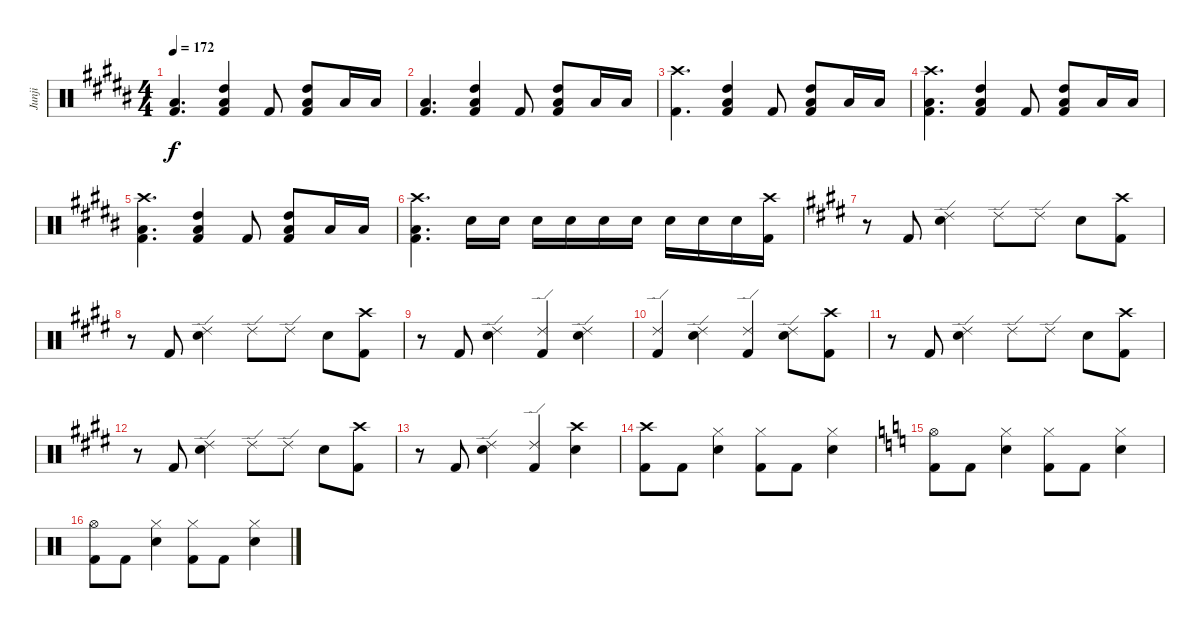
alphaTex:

\track ("Junji" "Junji") {instrument percussion}
\staff {score}
\articulation defaults
\ts (4 4)
\tempo 172
\clef neutral
\ks b
("Kick (hit) 2" "Low Tom (hit)").4{d dy f} ("Low Floor Tom (hit)" "Kick (hit) 2" "High Tom (hit)").4 "Kick (hit) 2".8 ("Low Floor Tom (hit)" "Kick (hit) 2" "High Tom (hit)").8 "Low Tom (hit)".16 "Low Tom (hit)".16 |
("Kick (hit) 2" "Low Tom (hit)").4{d} ("Low Floor Tom (hit)" "Kick (hit) 2" "High Tom (hit)").4 "Kick (hit) 2".8 ("Low Floor Tom (hit)" "Kick (hit) 2" "High Tom (hit)").8 "Low Tom (hit)".16 "Low Tom (hit)".16 |
("Crash high (hit)" "Kick (hit) 2").4{d} ("Low Floor Tom (hit)" "Kick (hit) 2" "High Tom (hit)").4 "Kick (hit) 2".8 ("Low Floor Tom (hit)" "Kick (hit) 2" "High Tom (hit)").8 "Low Tom (hit)".16 "Low Tom (hit)".16 |
("Crash high (hit)" "Kick (hit) 2" "Low Tom (hit)").4{d} ("Low Floor Tom (hit)" "Kick (hit) 2" "High Tom (hit)").4 "Kick (hit) 2".8 ("Low Floor Tom (hit)" "Kick (hit) 2" "High Tom (hit)").8 "Low Tom (hit)".16 "Low Tom (hit)".16 |
("Crash high (hit)" "Kick (hit) 2" "Low Tom (hit)").4{d} ("Low Floor Tom (hit)" "Kick (hit) 2" "High Tom (hit)").4 "Kick (hit) 2".8 ("Low Floor Tom (hit)" "Kick (hit) 2" "High Tom (hit)").8 "Low Tom (hit)".16 "Low Tom (hit)".16 |
("Crash high (hit)" "Kick (hit) 2" "Low Tom (hit)").4{d} "Snare (hit) 2".16 "Snare (hit) 2".16 "Snare (hit) 2".16 "Snare (hit) 2".16 "Snare (hit) 2".16 "Snare (hit) 2".16 "Snare (hit) 2".16 "Snare (hit) 2".16 "Snare (hit) 2".16 ("Crash high (hit)" "Kick (hit) 2").16 |
\ks e
r.8 "Kick (hit) 2".8 ("Ride (edge) 2" "Snare (hit) 2").4 "Ride (edge) 2".8 "Ride (edge) 2".8 "Snare (hit) 2".8 ("Crash high (hit)" "Kick (hit) 2").8 |
r.8 "Kick (hit) 2".8 ("Ride (edge) 2" "Snare (hit) 2").4 "Ride (edge) 2".8 "Ride (edge) 2".8 "Snare (hit) 2".8 ("Crash high (hit)" "Kick (hit) 2").8 |
r.8 "Kick (hit) 2".8 ("Ride (edge) 2" "Snare (hit) 2").4 ("Ride (edge) 2" "Kick (hit) 2").4 ("Ride (edge) 2" "Snare (hit) 2").4 |
("Ride (edge) 2" "Kick (hit) 2").4 ("Ride (edge) 2" "Snare (hit) 2").4 ("Ride (edge) 2" "Kick (hit) 2").4 ("Ride (edge) 2" "Snare (hit) 2").8 ("Crash high (hit)" "Kick (hit) 2").8 |
r.8 "Kick (hit) 2".8 ("Ride (edge) 2" "Snare (hit) 2").4 "Ride (edge) 2".8 "Ride (edge) 2".8 "Snare (hit) 2".8 ("Crash high (hit)" "Kick (hit) 2").8 |
r.8 "Kick (hit) 2".8 ("Ride (edge) 2" "Snare (hit) 2").4 "Ride (edge) 2".8 "Ride (edge) 2".8 "Snare (hit) 2".8 ("Crash high (hit)" "Kick (hit) 2").8 |
r.8 "Kick (hit) 2".8 ("Ride (edge) 2" "Snare (hit) 2").4 ("Ride (edge) 2" "Kick (hit) 2").4 ("Crash high (hit)" "Snare (hit) 2").4 |
("Crash high (hit)" "Kick (hit) 2").8 "Kick (hit) 2".8 ("Hi-Hat (closed)" "Snare (hit) 2").4 ("Hi-Hat (closed)" "Kick (hit) 2").8 "Kick (hit) 2".8 ("Hi-Hat (closed)" "Snare (hit) 2").4 |
\ks c
("Hi-Hat (open)" "Kick (hit) 2").8 "Kick (hit) 2".8 ("Hi-Hat (closed)" "Snare (hit) 2").4 ("Hi-Hat (closed)" "Kick (hit) 2").8 "Kick (hit) 2".8 ("Hi-Hat (closed)" "Snare (hit) 2").4 |
("Hi-Hat (open)" "Kick (hit) 2").8 "Kick (hit) 2".8 ("Hi-Hat (closed)" "Snare (hit) 2").4 ("Hi-Hat (closed)" "Kick (hit) 2").8 "Kick (hit) 2".8 ("Hi-Hat (closed)" "Snare (hit) 2").4
